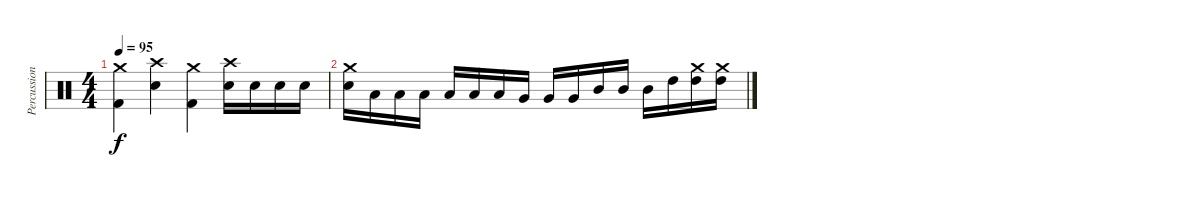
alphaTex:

\track ("Percussion" "Percussion") {instrument percussion}
\staff {score}
\articulation defaults
\ts (4 4)
\tempo 95
\clef neutral
\ks c
("Crash medium (hit)" "Kick (hit) 2").4{dy f} ("Crash high (hit)" "Electric Snare (hit)").4 ("Crash medium (hit)" "Kick (hit) 2").4 ("Crash high (hit)" "Electric Snare (hit)").16 "Electric Snare (hit)".16 "Electric Snare (hit)".16 "Electric Snare (hit)".16 |
("Crash medium (hit)" "Electric Snare (hit)").16 "Low Tom (hit)".16 "Low Tom (hit)".16 "Low Tom (hit)".16 "Low Floor Tom (hit)".16 "Low Floor Tom (hit)".16 "Low Floor Tom (hit)".16 "Very Low Tom (hit)".16 "Very Low Tom (hit)".16 "Very Low Tom (hit)".16 "Mid Tom (hit)".16 "Mid Tom (hit)".16 "Mid Tom (hit)".16 "High Tom (hit)".16 ("Crash medium (hit)" "High Tom (hit)").16 ("Crash medium (hit)" "High Tom (hit)").16
